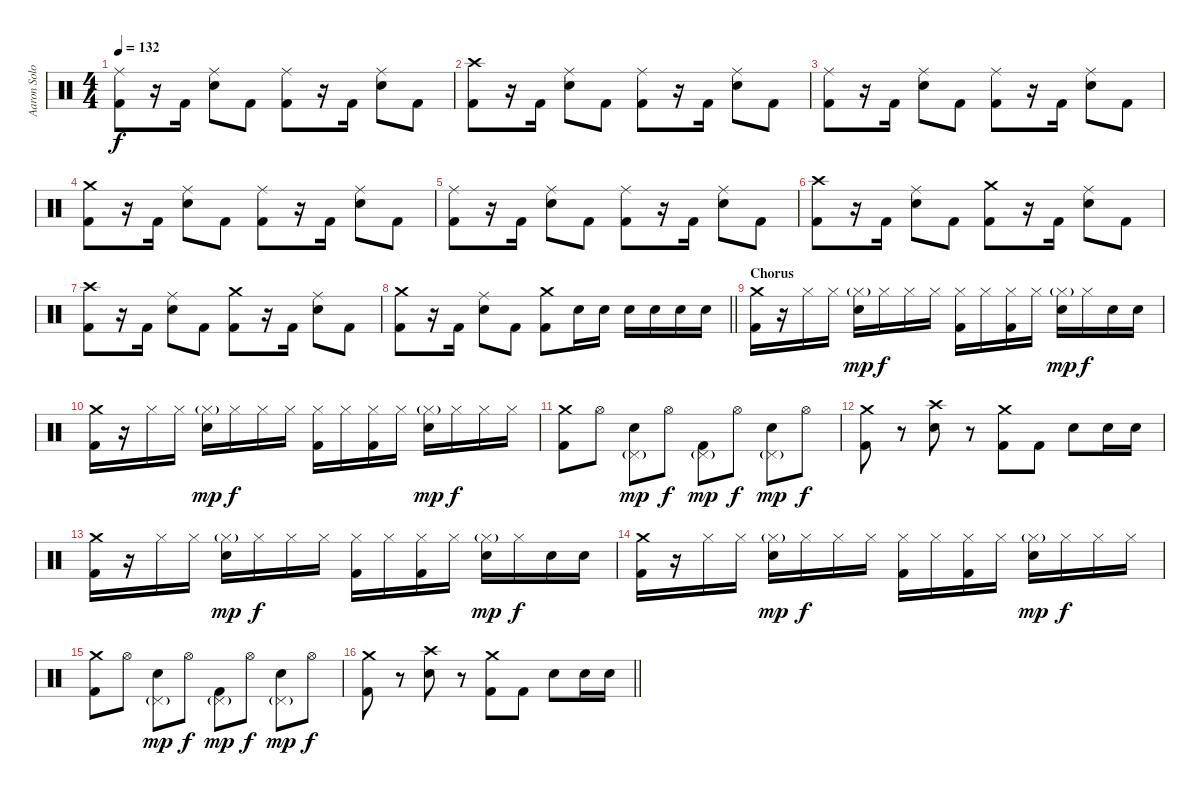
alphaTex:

\track ("Aaron Solowoniuk" "Aaron Solo") {instrument percussion}
\staff {score}
\articulation defaults
\ts (4 4)
\tempo 132
\clef neutral
\ks c
("Ride (middle)" "Kick (hit) 2").8{dy f} r.16 "Kick (hit) 2".16 ("Ride (middle)" "Electric Snare (hit)").8 "Kick (hit) 2".8 ("Ride (middle)" "Kick (hit) 2").8 r.16 "Kick (hit) 2".16 ("Ride (middle)" "Electric Snare (hit)").8 "Kick (hit) 2".8 |
("Crash high (hit)" "Kick (hit) 2").8 r.16 "Kick (hit) 2".16 ("Ride (middle)" "Electric Snare (hit)").8 "Kick (hit) 2".8 ("Ride (middle)" "Kick (hit) 2").8 r.16 "Kick (hit) 2".16 ("Ride (middle)" "Electric Snare (hit)").8 "Kick (hit) 2".8 |
("Ride (middle)" "Kick (hit) 2").8 r.16 "Kick (hit) 2".16 ("Ride (middle)" "Electric Snare (hit)").8 "Kick (hit) 2".8 ("Ride (middle)" "Kick (hit) 2").8 r.16 "Kick (hit) 2".16 ("Ride (middle)" "Electric Snare (hit)").8 "Kick (hit) 2".8 |
("Crash medium (hit)" "Kick (hit) 2").8 r.16 "Kick (hit) 2".16 ("Ride (middle)" "Electric Snare (hit)").8 "Kick (hit) 2".8 ("Ride (middle)" "Kick (hit) 2").8 r.16 "Kick (hit) 2".16 ("Ride (middle)" "Electric Snare (hit)").8 "Kick (hit) 2".8 |
("Ride (middle)" "Kick (hit) 2").8 r.16 "Kick (hit) 2".16 ("Ride (middle)" "Electric Snare (hit)").8 "Kick (hit) 2".8 ("Ride (middle)" "Kick (hit) 2").8 r.16 "Kick (hit) 2".16 ("Ride (middle)" "Electric Snare (hit)").8 "Kick (hit) 2".8 |
("Crash high (hit)" "Kick (hit) 2").8 r.16 "Kick (hit) 2".16 ("Ride (middle)" "Electric Snare (hit)").8 "Kick (hit) 2".8 ("Crash medium (hit)" "Kick (hit) 2").8 r.16 "Kick (hit) 2".16 ("Ride (middle)" "Electric Snare (hit)").8 "Kick (hit) 2".8 |
("Crash high (hit)" "Kick (hit) 2").8 r.16 "Kick (hit) 2".16 ("Ride (middle)" "Electric Snare (hit)").8 "Kick (hit) 2".8 ("Crash medium (hit)" "Kick (hit) 2").8 r.16 "Kick (hit) 2".16 ("Ride (middle)" "Electric Snare (hit)").8 "Kick (hit) 2".8 |
\barLineRight lightlight
("Crash medium (hit)" "Kick (hit) 2").8 r.16 "Kick (hit) 2".16 ("Ride (middle)" "Electric Snare (hit)").8 "Kick (hit) 2".8 ("Crash medium (hit)" "Kick (hit) 2").8 "Electric Snare (hit)".16 "Electric Snare (hit)".16 "Electric Snare (hit)".16 "Electric Snare (hit)".16 "Electric Snare (hit)".16 "Electric Snare (hit)".16 |
\section ("" "Chorus")
("Crash medium (hit)" "Kick (hit) 2").16 r.16 "Hi-Hat (closed)".16 "Hi-Hat (closed)".16 ("Hi-Hat (closed)"{g} "Electric Snare (hit)").16{dy mp} "Hi-Hat (closed)".16{dy f} "Hi-Hat (closed)".16 "Hi-Hat (closed)".16 ("Hi-Hat (closed)" "Kick (hit) 2").16 "Hi-Hat (closed)".16 ("Hi-Hat (closed)" "Kick (hit) 2").16 "Hi-Hat (closed)".16 ("Hi-Hat (closed)"{g} "Electric Snare (hit)").16{dy mp} "Hi-Hat (closed)".16{dy f} "Electric Snare (hit)".16 "Electric Snare (hit)".16 |
("Crash medium (hit)" "Kick (hit) 2").16 r.16 "Hi-Hat (closed)".16 "Hi-Hat (closed)".16 ("Hi-Hat (closed)"{g} "Electric Snare (hit)").16{dy mp} "Hi-Hat (closed)".16{dy f} "Hi-Hat (closed)".16 "Hi-Hat (closed)".16 ("Hi-Hat (closed)" "Kick (hit) 2").16 "Hi-Hat (closed)".16 ("Hi-Hat (closed)" "Kick (hit) 2").16 "Hi-Hat (closed)".16 ("Hi-Hat (closed)"{g} "Electric Snare (hit)").16{dy mp} "Hi-Hat (closed)".16{dy f} "Hi-Hat (closed)".16 "Hi-Hat (closed)".16 |
("Crash medium (hit)" "Kick (hit) 2").8 "Hi-Hat (open)".8 ("Pedal Hi-Hat (hit)"{g} "Electric Snare (hit)").8{dy mp} "Hi-Hat (open)".8{dy f} ("Pedal Hi-Hat (hit)"{g} "Kick (hit) 2").8{dy mp} "Hi-Hat (open)".8{dy f} ("Pedal Hi-Hat (hit)"{g} "Electric Snare (hit)").8{dy mp} "Hi-Hat (open)".8{dy f} |
("Crash medium (hit)" "Kick (hit) 2").8 r.8 ("Crash high (hit)" "Electric Snare (hit)").8 r.8 ("Crash medium (hit)" "Kick (hit) 2").8 "Kick (hit) 2".8 "Electric Snare (hit)".8 "Electric Snare (hit)".16 "Electric Snare (hit)".16 |
("Crash medium (hit)" "Kick (hit) 2").16 r.16 "Hi-Hat (closed)".16 "Hi-Hat (closed)".16 ("Hi-Hat (closed)"{g} "Electric Snare (hit)").16{dy mp} "Hi-Hat (closed)".16{dy f} "Hi-Hat (closed)".16 "Hi-Hat (closed)".16 ("Hi-Hat (closed)" "Kick (hit) 2").16 "Hi-Hat (closed)".16 ("Hi-Hat (closed)" "Kick (hit) 2").16 "Hi-Hat (closed)".16 ("Hi-Hat (closed)"{g} "Electric Snare (hit)").16{dy mp} "Hi-Hat (closed)".16{dy f} "Electric Snare (hit)".16 "Electric Snare (hit)".16 |
("Crash medium (hit)" "Kick (hit) 2").16 r.16 "Hi-Hat (closed)".16 "Hi-Hat (closed)".16 ("Hi-Hat (closed)"{g} "Electric Snare (hit)").16{dy mp} "Hi-Hat (closed)".16{dy f} "Hi-Hat (closed)".16 "Hi-Hat (closed)".16 ("Hi-Hat (closed)" "Kick (hit) 2").16 "Hi-Hat (closed)".16 ("Hi-Hat (closed)" "Kick (hit) 2").16 "Hi-Hat (closed)".16 ("Hi-Hat (closed)"{g} "Electric Snare (hit)").16{dy mp} "Hi-Hat (closed)".16{dy f} "Hi-Hat (closed)".16 "Hi-Hat (closed)".16 |
("Crash medium (hit)" "Kick (hit) 2").8 "Hi-Hat (open)".8 ("Pedal Hi-Hat (hit)"{g} "Electric Snare (hit)").8{dy mp} "Hi-Hat (open)".8{dy f} ("Pedal Hi-Hat (hit)"{g} "Kick (hit) 2").8{dy mp} "Hi-Hat (open)".8{dy f} ("Pedal Hi-Hat (hit)"{g} "Electric Snare (hit)").8{dy mp} "Hi-Hat (open)".8{dy f} |
\barLineRight lightlight
("Crash medium (hit)" "Kick (hit) 2").8 r.8 ("Crash high (hit)" "Electric Snare (hit)").8 r.8 ("Crash medium (hit)" "Kick (hit) 2").8 "Kick (hit) 2".8 "Electric Snare (hit)".8 "Electric Snare (hit)".16 "Electric Snare (hit)".16
